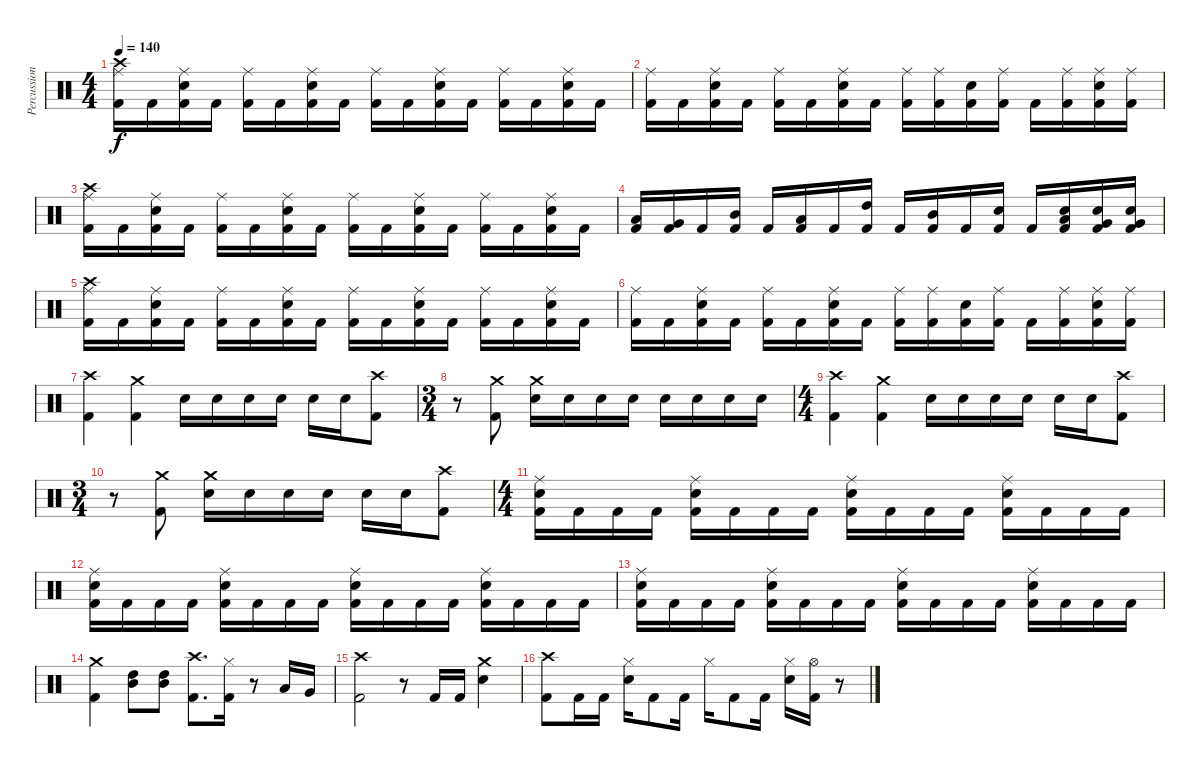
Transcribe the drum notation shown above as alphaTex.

\track ("Percussion" "Percussion") {instrument percussion}
\staff {score}
\articulation defaults
\ts (4 4)
\tempo 140
\clef neutral
\ks c
("Crash high (hit)" "Ride (middle)" "Kick (hit) 2").16{dy f} "Kick (hit) 2".16 ("Ride (middle)" "Snare (hit) 2" "Kick (hit) 2").16 "Kick (hit) 2".16 ("Ride (middle)" "Kick (hit) 2").16 "Kick (hit) 2".16 ("Ride (middle)" "Snare (hit) 2" "Kick (hit) 2").16 "Kick (hit) 2".16 ("Ride (middle)" "Kick (hit) 2").16 "Kick (hit) 2".16 ("Ride (middle)" "Snare (hit) 2" "Kick (hit) 2").16 "Kick (hit) 2".16 ("Ride (middle)" "Kick (hit) 2").16 "Kick (hit) 2".16 ("Ride (middle)" "Snare (hit) 2" "Kick (hit) 2").16 "Kick (hit) 2".16 |
("Ride (middle)" "Kick (hit) 2").16 "Kick (hit) 2".16 ("Ride (middle)" "Snare (hit) 2" "Kick (hit) 2").16 "Kick (hit) 2".16 ("Ride (middle)" "Kick (hit) 2").16 "Kick (hit) 2".16 ("Ride (middle)" "Snare (hit) 2" "Kick (hit) 2").16 "Kick (hit) 2".16 ("Ride (middle)" "Kick (hit) 2").16 ("Ride (middle)" "Kick (hit) 2").16 ("Snare (hit) 2" "Kick (hit) 2").16 ("Ride (middle)" "Kick (hit) 2").16 "Kick (hit) 2".16 ("Ride (middle)" "Kick (hit) 2").16 ("Ride (middle)" "Snare (hit) 2" "Kick (hit) 2").16 ("Ride (middle)" "Kick (hit) 2").16 |
("Crash high (hit)" "Ride (middle)" "Kick (hit) 2").16 "Kick (hit) 2".16 ("Ride (middle)" "Snare (hit) 2" "Kick (hit) 2").16 "Kick (hit) 2".16 ("Ride (middle)" "Kick (hit) 2").16 "Kick (hit) 2".16 ("Ride (middle)" "Snare (hit) 2" "Kick (hit) 2").16 "Kick (hit) 2".16 ("Ride (middle)" "Kick (hit) 2").16 "Kick (hit) 2".16 ("Ride (middle)" "Snare (hit) 2" "Kick (hit) 2").16 "Kick (hit) 2".16 ("Ride (middle)" "Kick (hit) 2").16 "Kick (hit) 2".16 ("Ride (middle)" "Snare (hit) 2" "Kick (hit) 2").16 "Kick (hit) 2".16 |
("Low Tom (hit)" "Kick (hit) 2").16 ("Very Low Tom (hit)" "Kick (hit) 2").16 "Kick (hit) 2".16 ("Mid Tom (hit)" "Kick (hit) 2").16 "Kick (hit) 2".16 ("Low Tom (hit)" "Kick (hit) 2").16 "Kick (hit) 2".16 ("High Tom (hit)" "Kick (hit) 2").16 "Kick (hit) 2".16 ("Mid Tom (hit)" "Kick (hit) 2").16 "Kick (hit) 2".16 ("Snare (hit) 2" "Kick (hit) 2").16 "Kick (hit) 2".16 ("Low Tom (hit)" "Snare (hit) 2" "Kick (hit) 2").16 ("Very Low Tom (hit)" "Snare (hit) 2" "Kick (hit) 2").16 ("Very Low Tom (hit)" "Snare (hit) 2" "Kick (hit) 2").16 |
("Crash high (hit)" "Ride (middle)" "Kick (hit) 2").16 "Kick (hit) 2".16 ("Ride (middle)" "Snare (hit) 2" "Kick (hit) 2").16 "Kick (hit) 2".16 ("Ride (middle)" "Kick (hit) 2").16 "Kick (hit) 2".16 ("Ride (middle)" "Snare (hit) 2" "Kick (hit) 2").16 "Kick (hit) 2".16 ("Ride (middle)" "Kick (hit) 2").16 "Kick (hit) 2".16 ("Ride (middle)" "Snare (hit) 2" "Kick (hit) 2").16 "Kick (hit) 2".16 ("Ride (middle)" "Kick (hit) 2").16 "Kick (hit) 2".16 ("Ride (middle)" "Snare (hit) 2" "Kick (hit) 2").16 "Kick (hit) 2".16 |
("Ride (middle)" "Kick (hit) 2").16 "Kick (hit) 2".16 ("Ride (middle)" "Snare (hit) 2" "Kick (hit) 2").16 "Kick (hit) 2".16 ("Ride (middle)" "Kick (hit) 2").16 "Kick (hit) 2".16 ("Ride (middle)" "Snare (hit) 2" "Kick (hit) 2").16 "Kick (hit) 2".16 ("Ride (middle)" "Kick (hit) 2").16 ("Ride (middle)" "Kick (hit) 2").16 ("Snare (hit) 2" "Kick (hit) 2").16 ("Ride (middle)" "Kick (hit) 2").16 "Kick (hit) 2".16 ("Ride (middle)" "Kick (hit) 2").16 ("Ride (middle)" "Snare (hit) 2" "Kick (hit) 2").16 ("Ride (middle)" "Kick (hit) 2").16 |
("Crash high (hit)" "Kick (hit) 2").4 ("Crash medium (hit)" "Kick (hit) 2").4 "Snare (hit) 2".16 "Snare (hit) 2".16 "Snare (hit) 2".16 "Snare (hit) 2".16 "Snare (hit) 2".16 "Snare (hit) 2".16 ("Crash high (hit)" "Kick (hit) 2").8 |
\ts (3 4)
r.8 ("Crash medium (hit)" "Kick (hit) 2").8 ("Crash medium (hit)" "Snare (hit) 2").16 "Snare (hit) 2".16 "Snare (hit) 2".16 "Snare (hit) 2".16 "Snare (hit) 2".16 "Snare (hit) 2".16 "Snare (hit) 2".16 "Snare (hit) 2".16 |
\ts (4 4)
("Crash high (hit)" "Kick (hit) 2").4 ("Crash medium (hit)" "Kick (hit) 2").4 "Snare (hit) 2".16 "Snare (hit) 2".16 "Snare (hit) 2".16 "Snare (hit) 2".16 "Snare (hit) 2".16 "Snare (hit) 2".16 ("Crash high (hit)" "Kick (hit) 2").8 |
\ts (3 4)
r.8 ("Crash medium (hit)" "Kick (hit) 2").8 ("Crash medium (hit)" "Snare (hit) 2").16 "Snare (hit) 2".16 "Snare (hit) 2".16 "Snare (hit) 2".16 "Snare (hit) 2".16 "Snare (hit) 2".16 ("Crash high (hit)" "Kick (hit) 2").8 |
\ts (4 4)
("Ride (middle)" "Snare (hit) 2" "Kick (hit) 2").16 "Kick (hit) 2".16 "Kick (hit) 2".16 "Kick (hit) 2".16 ("Ride (middle)" "Snare (hit) 2" "Kick (hit) 2").16 "Kick (hit) 2".16 "Kick (hit) 2".16 "Kick (hit) 2".16 ("Ride (middle)" "Snare (hit) 2" "Kick (hit) 2").16 "Kick (hit) 2".16 "Kick (hit) 2".16 "Kick (hit) 2".16 ("Ride (middle)" "Snare (hit) 2" "Kick (hit) 2").16 "Kick (hit) 2".16 "Kick (hit) 2".16 "Kick (hit) 2".16 |
("Ride (middle)" "Snare (hit) 2" "Kick (hit) 2").16 "Kick (hit) 2".16 "Kick (hit) 2".16 "Kick (hit) 2".16 ("Ride (middle)" "Snare (hit) 2" "Kick (hit) 2").16 "Kick (hit) 2".16 "Kick (hit) 2".16 "Kick (hit) 2".16 ("Ride (middle)" "Snare (hit) 2" "Kick (hit) 2").16 "Kick (hit) 2".16 "Kick (hit) 2".16 "Kick (hit) 2".16 ("Ride (middle)" "Snare (hit) 2" "Kick (hit) 2").16 "Kick (hit) 2".16 "Kick (hit) 2".16 "Kick (hit) 2".16 |
("Ride (middle)" "Snare (hit) 2" "Kick (hit) 2").16 "Kick (hit) 2".16 "Kick (hit) 2".16 "Kick (hit) 2".16 ("Ride (middle)" "Snare (hit) 2" "Kick (hit) 2").16 "Kick (hit) 2".16 "Kick (hit) 2".16 "Kick (hit) 2".16 ("Ride (middle)" "Snare (hit) 2" "Kick (hit) 2").16 "Kick (hit) 2".16 "Kick (hit) 2".16 "Kick (hit) 2".16 ("Ride (middle)" "Snare (hit) 2" "Kick (hit) 2").16 "Kick (hit) 2".16 "Kick (hit) 2".16 "Kick (hit) 2".16 |
("Crash medium (hit)" "Kick (hit) 2").4 ("Mid Tom (hit)" "High Tom (hit)").8 ("Mid Tom (hit)" "High Tom (hit)").8 ("Crash high (hit)" "Kick (hit) 2").8{d} ("Hi-Hat (closed)" "Kick (hit) 2").16 r.8 "Low Tom (hit)".16 "Very Low Tom (hit)".16 |
("Crash high (hit)" "Kick (hit) 2").2 r.8 "Kick (hit) 2".16 "Kick (hit) 2".16 ("Crash medium (hit)" "Snare (hit) 2").4 |
("Crash high (hit)" "Kick (hit) 2").8 "Kick (hit) 2".16 "Kick (hit) 2".16 ("Hi-Hat (closed)" "Snare (hit) 2").16 "Kick (hit) 2".8 "Kick (hit) 2".16 "Hi-Hat (closed)".16 "Kick (hit) 2".8 "Kick (hit) 2".16 ("Hi-Hat (closed)" "Snare (hit) 2").16 ("Hi-Hat (open)" "Kick (hit) 2").16 r.8
